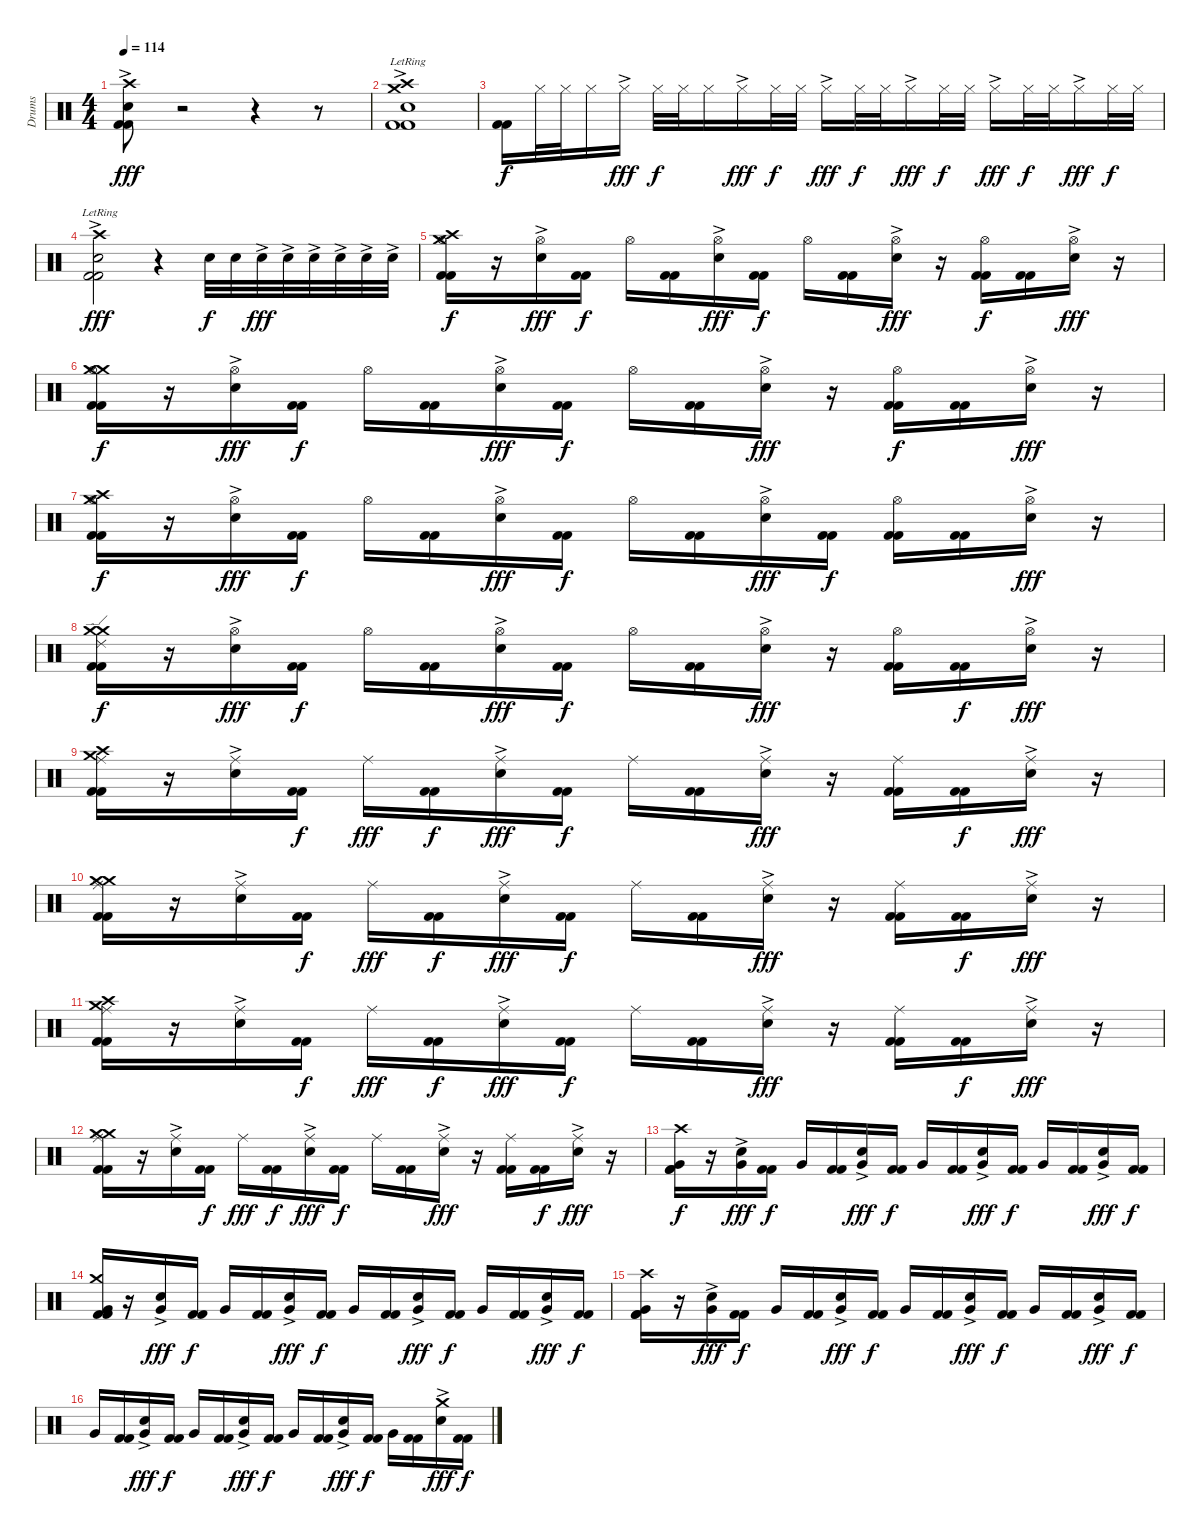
\track ("Drums" "Drums") {instrument percussion}
\staff {score}
\articulation defaults
\ts (4 4)
\tempo 114
\clef neutral
\ks c
("Crash high (hit)"{ac} "Electric Snare (hit)" "Kick (hit) 2" "Kick (hit) 2").8{dy fff} r.2 r.4 r.8 |
("Crash high (hit)"{ac lr} "Crash medium (hit)"{lr} "Electric Snare (hit)"{lr} "Kick (hit) 2"{lr} "Kick (hit) 2"{lr}).1 |
("Kick (hit) 2" "Kick (hit) 2").16{dy f} "Hi-Hat (closed)".32 "Hi-Hat (closed)".32 "Hi-Hat (closed)".16 "Hi-Hat (closed)"{ac}.16{dy fff} "Hi-Hat (closed)".32{dy f} "Hi-Hat (closed)".32 "Hi-Hat (closed)".16 "Hi-Hat (closed)"{ac}.16{dy fff} "Hi-Hat (closed)".32{dy f} "Hi-Hat (closed)".32 "Hi-Hat (closed)"{ac}.16{dy fff} "Hi-Hat (closed)".32{dy f} "Hi-Hat (closed)".32 "Hi-Hat (closed)"{ac}.16{dy fff} "Hi-Hat (closed)".32{dy f} "Hi-Hat (closed)".32 "Hi-Hat (closed)"{ac}.16{dy fff} "Hi-Hat (closed)".32{dy f} "Hi-Hat (closed)".32 "Hi-Hat (closed)"{ac}.16{dy fff} "Hi-Hat (closed)".32{dy f} "Hi-Hat (closed)".32 |
("Crash high (hit)"{ac lr} "Electric Snare (hit)"{lr} "Kick (hit) 2"{lr} "Kick (hit) 2"{lr}).2{dy fff} r.4 "Electric Snare (hit)".32{dy f} "Electric Snare (hit)".32 "Electric Snare (hit)"{ac}.32{dy fff} "Electric Snare (hit)"{ac}.32 "Electric Snare (hit)"{ac}.32 "Electric Snare (hit)"{ac}.32 "Electric Snare (hit)"{ac}.32 "Electric Snare (hit)"{ac}.32 |
("Crash high (hit)" "Crash medium (hit)" "Hi-Hat (open)" "Kick (hit) 2" "Kick (hit) 2").16{dy f} r.16 ("Hi-Hat (open)" "Electric Snare (hit)"{ac}).16{dy fff} ("Kick (hit) 2" "Kick (hit) 2").16{dy f} "Hi-Hat (open)".16 ("Kick (hit) 2" "Kick (hit) 2").16 ("Hi-Hat (open)" "Electric Snare (hit)"{ac}).16{dy fff} ("Kick (hit) 2" "Kick (hit) 2").16{dy f} "Hi-Hat (open)".16 ("Kick (hit) 2" "Kick (hit) 2").16 ("Hi-Hat (open)" "Electric Snare (hit)"{ac}).16{dy fff} r.16 ("Hi-Hat (open)" "Kick (hit) 2" "Kick (hit) 2").16{dy f} ("Kick (hit) 2" "Kick (hit) 2").16 ("Hi-Hat (open)" "Electric Snare (hit)"{ac}).16{dy fff} r.16 |
("Crash medium (hit)" "Crash medium (hit)" "Hi-Hat (open)" "Kick (hit) 2" "Kick (hit) 2").16{dy f} r.16 ("Hi-Hat (open)" "Electric Snare (hit)"{ac}).16{dy fff} ("Kick (hit) 2" "Kick (hit) 2").16{dy f} "Hi-Hat (open)".16 ("Kick (hit) 2" "Kick (hit) 2").16 ("Hi-Hat (open)" "Electric Snare (hit)"{ac}).16{dy fff} ("Kick (hit) 2" "Kick (hit) 2").16{dy f} "Hi-Hat (open)".16 ("Kick (hit) 2" "Kick (hit) 2").16 ("Hi-Hat (open)" "Electric Snare (hit)"{ac}).16{dy fff} r.16 ("Hi-Hat (open)" "Kick (hit) 2" "Kick (hit) 2").16{dy f} ("Kick (hit) 2" "Kick (hit) 2").16 ("Hi-Hat (open)" "Electric Snare (hit)"{ac}).16{dy fff} r.16 |
("Crash high (hit)" "Crash medium (hit)" "Hi-Hat (open)" "Kick (hit) 2" "Kick (hit) 2").16{dy f} r.16 ("Hi-Hat (open)" "Electric Snare (hit)"{ac}).16{dy fff} ("Kick (hit) 2" "Kick (hit) 2").16{dy f} "Hi-Hat (open)".16 ("Kick (hit) 2" "Kick (hit) 2").16 ("Hi-Hat (open)" "Electric Snare (hit)"{ac}).16{dy fff} ("Kick (hit) 2" "Kick (hit) 2").16{dy f} "Hi-Hat (open)".16 ("Kick (hit) 2" "Kick (hit) 2").16 ("Hi-Hat (open)" "Electric Snare (hit)"{ac}).16{dy fff} ("Kick (hit) 2" "Kick (hit) 2").16{dy f} ("Hi-Hat (open)" "Kick (hit) 2" "Kick (hit) 2").16 ("Kick (hit) 2" "Kick (hit) 2").16 ("Hi-Hat (open)" "Electric Snare (hit)"{ac}).16{dy fff} r.16 |
("Crash medium (hit)" "Crash medium (hit)" "Ride (edge) 2" "Kick (hit) 2" "Kick (hit) 2").16{dy f} r.16 ("Hi-Hat (open)" "Electric Snare (hit)"{ac}).16{dy fff} ("Kick (hit) 2" "Kick (hit) 2").16{dy f} "Hi-Hat (open)".16 ("Kick (hit) 2" "Kick (hit) 2").16 ("Hi-Hat (open)" "Electric Snare (hit)"{ac}).16{dy fff} ("Kick (hit) 2" "Kick (hit) 2").16{dy f} "Hi-Hat (open)".16 ("Kick (hit) 2" "Kick (hit) 2").16 ("Hi-Hat (open)" "Electric Snare (hit)"{ac}).16{dy fff} r.16 ("Hi-Hat (open)" "Kick (hit) 2" "Kick (hit) 2").16 ("Kick (hit) 2" "Kick (hit) 2").16{dy f} ("Hi-Hat (open)" "Electric Snare (hit)"{ac}).16{dy fff} r.16 |
("Crash high (hit)" "Crash medium (hit)" "Ride (middle)" "Kick (hit) 2" "Kick (hit) 2").16 r.16 ("Ride (middle)" "Electric Snare (hit)"{ac}).16 ("Kick (hit) 2" "Kick (hit) 2").16{dy f} "Ride (middle)".16{dy fff} ("Kick (hit) 2" "Kick (hit) 2").16{dy f} ("Ride (middle)" "Electric Snare (hit)"{ac}).16{dy fff} ("Kick (hit) 2" "Kick (hit) 2").16{dy f} "Ride (middle)".16 ("Kick (hit) 2" "Kick (hit) 2").16 ("Ride (middle)" "Electric Snare (hit)"{ac}).16{dy fff} r.16 ("Ride (middle)" "Kick (hit) 2" "Kick (hit) 2").16 ("Kick (hit) 2" "Kick (hit) 2").16{dy f} ("Ride (middle)" "Electric Snare (hit)"{ac}).16{dy fff} r.16 |
("Crash medium (hit)" "Crash medium (hit)" "Ride (middle)" "Kick (hit) 2" "Kick (hit) 2").16 r.16 ("Ride (middle)" "Electric Snare (hit)"{ac}).16 ("Kick (hit) 2" "Kick (hit) 2").16{dy f} "Ride (middle)".16{dy fff} ("Kick (hit) 2" "Kick (hit) 2").16{dy f} ("Ride (middle)" "Electric Snare (hit)"{ac}).16{dy fff} ("Kick (hit) 2" "Kick (hit) 2").16{dy f} "Ride (middle)".16 ("Kick (hit) 2" "Kick (hit) 2").16 ("Ride (middle)" "Electric Snare (hit)"{ac}).16{dy fff} r.16 ("Ride (middle)" "Kick (hit) 2" "Kick (hit) 2").16 ("Kick (hit) 2" "Kick (hit) 2").16{dy f} ("Ride (middle)" "Electric Snare (hit)"{ac}).16{dy fff} r.16 |
("Crash high (hit)" "Crash medium (hit)" "Ride (middle)" "Kick (hit) 2" "Kick (hit) 2").16 r.16 ("Ride (middle)" "Electric Snare (hit)"{ac}).16 ("Kick (hit) 2" "Kick (hit) 2").16{dy f} "Ride (middle)".16{dy fff} ("Kick (hit) 2" "Kick (hit) 2").16{dy f} ("Ride (middle)" "Electric Snare (hit)"{ac}).16{dy fff} ("Kick (hit) 2" "Kick (hit) 2").16{dy f} "Ride (middle)".16 ("Kick (hit) 2" "Kick (hit) 2").16 ("Ride (middle)" "Electric Snare (hit)"{ac}).16{dy fff} r.16 ("Ride (middle)" "Kick (hit) 2" "Kick (hit) 2").16 ("Kick (hit) 2" "Kick (hit) 2").16{dy f} ("Ride (middle)" "Electric Snare (hit)"{ac}).16{dy fff} r.16 |
("Crash medium (hit)" "Crash medium (hit)" "Ride (middle)" "Kick (hit) 2" "Kick (hit) 2").16 r.16 ("Ride (middle)" "Electric Snare (hit)"{ac}).16 ("Kick (hit) 2" "Kick (hit) 2").16{dy f} "Ride (middle)".16{dy fff} ("Kick (hit) 2" "Kick (hit) 2").16{dy f} ("Ride (middle)" "Electric Snare (hit)"{ac}).16{dy fff} ("Kick (hit) 2" "Kick (hit) 2").16{dy f} "Ride (middle)".16 ("Kick (hit) 2" "Kick (hit) 2").16 ("Ride (middle)" "Electric Snare (hit)"{ac}).16{dy fff} r.16 ("Ride (middle)" "Kick (hit) 2" "Kick (hit) 2").16 ("Kick (hit) 2" "Kick (hit) 2").16{dy f} ("Ride (middle)" "Electric Snare (hit)"{ac}).16{dy fff} r.16 |
("Crash high (hit)" "Very Low Tom (hit)" "Kick (hit) 2" "Kick (hit) 2").16{dy f} r.16 ("Very Low Tom (hit)" "Electric Snare (hit)"{ac}).16{dy fff} ("Kick (hit) 2" "Kick (hit) 2").16{dy f} "Very Low Tom (hit)".16 ("Kick (hit) 2" "Kick (hit) 2").16 ("Very Low Tom (hit)" "Electric Snare (hit)"{ac}).16{dy fff} ("Kick (hit) 2" "Kick (hit) 2").16{dy f} "Very Low Tom (hit)".16 ("Kick (hit) 2" "Kick (hit) 2").16 ("Very Low Tom (hit)" "Electric Snare (hit)"{ac}).16{dy fff} ("Kick (hit) 2" "Kick (hit) 2").16{dy f} "Very Low Tom (hit)".16 ("Kick (hit) 2" "Kick (hit) 2").16 ("Very Low Tom (hit)" "Electric Snare (hit)"{ac}).16{dy fff} ("Kick (hit) 2" "Kick (hit) 2").16{dy f} |
("Crash medium (hit)" "Very Low Tom (hit)" "Kick (hit) 2" "Kick (hit) 2").16 r.16 ("Very Low Tom (hit)" "Electric Snare (hit)"{ac}).16{dy fff} ("Kick (hit) 2" "Kick (hit) 2").16{dy f} "Very Low Tom (hit)".16 ("Kick (hit) 2" "Kick (hit) 2").16 ("Very Low Tom (hit)" "Electric Snare (hit)"{ac}).16{dy fff} ("Kick (hit) 2" "Kick (hit) 2").16{dy f} "Very Low Tom (hit)".16 ("Kick (hit) 2" "Kick (hit) 2").16 ("Very Low Tom (hit)" "Electric Snare (hit)"{ac}).16{dy fff} ("Kick (hit) 2" "Kick (hit) 2").16{dy f} "Very Low Tom (hit)".16 ("Kick (hit) 2" "Kick (hit) 2").16 ("Very Low Tom (hit)" "Electric Snare (hit)"{ac}).16{dy fff} ("Kick (hit) 2" "Kick (hit) 2").16{dy f} |
("Crash high (hit)" "Very Low Tom (hit)" "Kick (hit) 2" "Kick (hit) 2").16 r.16 ("Very Low Tom (hit)" "Electric Snare (hit)"{ac}).16{dy fff} ("Kick (hit) 2" "Kick (hit) 2").16{dy f} "Very Low Tom (hit)".16 ("Kick (hit) 2" "Kick (hit) 2").16 ("Very Low Tom (hit)" "Electric Snare (hit)"{ac}).16{dy fff} ("Kick (hit) 2" "Kick (hit) 2").16{dy f} "Very Low Tom (hit)".16 ("Kick (hit) 2" "Kick (hit) 2").16 ("Very Low Tom (hit)" "Electric Snare (hit)"{ac}).16{dy fff} ("Kick (hit) 2" "Kick (hit) 2").16{dy f} "Very Low Tom (hit)".16 ("Kick (hit) 2" "Kick (hit) 2").16 ("Very Low Tom (hit)" "Electric Snare (hit)"{ac}).16{dy fff} ("Kick (hit) 2" "Kick (hit) 2").16{dy f} |
"Very Low Tom (hit)".16 ("Kick (hit) 2" "Kick (hit) 2").16 ("Very Low Tom (hit)" "Electric Snare (hit)"{ac}).16{dy fff} ("Kick (hit) 2" "Kick (hit) 2").16{dy f} "Very Low Tom (hit)".16 ("Kick (hit) 2" "Kick (hit) 2").16 ("Very Low Tom (hit)" "Electric Snare (hit)"{ac}).16{dy fff} ("Kick (hit) 2" "Kick (hit) 2").16{dy f} "Very Low Tom (hit)".16 ("Kick (hit) 2" "Kick (hit) 2").16 ("Very Low Tom (hit)" "Electric Snare (hit)"{ac}).16{dy fff} ("Kick (hit) 2" "Kick (hit) 2").16{dy f} "Very Low Tom (hit)".16 ("Kick (hit) 2" "Kick (hit) 2").16 ("Crash medium (hit)" "Electric Snare (hit)"{ac}).16{dy fff} ("Kick (hit) 2" "Kick (hit) 2").16{dy f}
